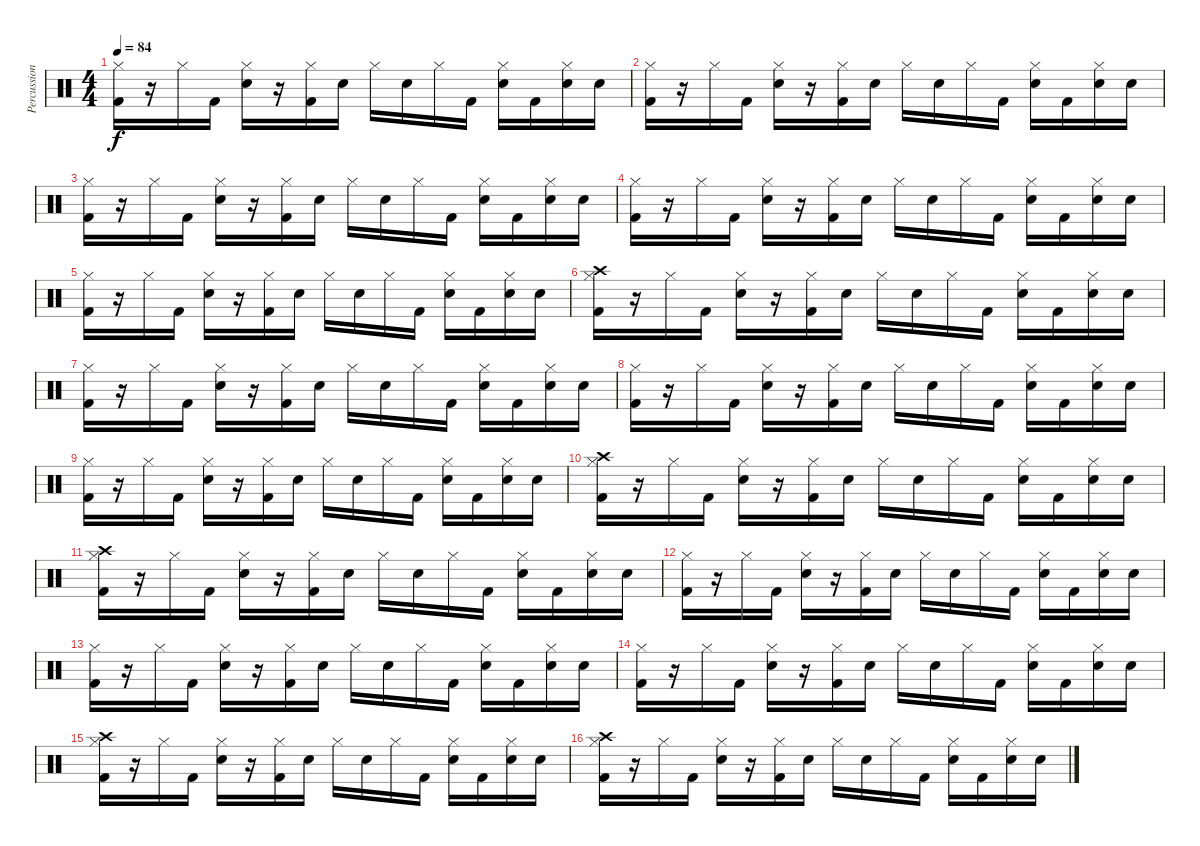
\track ("Percussion" "Percussion") {instrument percussion}
\staff {score}
\articulation defaults
\ts (4 4)
\tempo 84
\clef neutral
\ks c
("Hi-Hat (closed)" "Kick (hit) 2").16{dy f} r.16 "Hi-Hat (closed)".16 "Kick (hit) 2".16 ("Hi-Hat (closed)" "Snare (hit) 2").16 r.16 ("Hi-Hat (closed)" "Kick (hit) 2").16 "Snare (hit) 2".16 "Hi-Hat (closed)".16 "Snare (hit) 2".16 "Hi-Hat (closed)".16 "Kick (hit) 2".16 ("Hi-Hat (closed)" "Snare (hit) 2").16 "Kick (hit) 2".16 ("Hi-Hat (closed)" "Snare (hit) 2").16 "Snare (hit) 2".16 |
("Hi-Hat (closed)" "Kick (hit) 2").16 r.16 "Hi-Hat (closed)".16 "Kick (hit) 2".16 ("Hi-Hat (closed)" "Snare (hit) 2").16 r.16 ("Hi-Hat (closed)" "Kick (hit) 2").16 "Snare (hit) 2".16 "Hi-Hat (closed)".16 "Snare (hit) 2".16 "Hi-Hat (closed)".16 "Kick (hit) 2".16 ("Hi-Hat (closed)" "Snare (hit) 2").16 "Kick (hit) 2".16 ("Hi-Hat (closed)" "Snare (hit) 2").16 "Snare (hit) 2".16 |
("Hi-Hat (closed)" "Kick (hit) 2").16 r.16 "Hi-Hat (closed)".16 "Kick (hit) 2".16 ("Hi-Hat (closed)" "Snare (hit) 2").16 r.16 ("Hi-Hat (closed)" "Kick (hit) 2").16 "Snare (hit) 2".16 "Hi-Hat (closed)".16 "Snare (hit) 2".16 "Hi-Hat (closed)".16 "Kick (hit) 2".16 ("Hi-Hat (closed)" "Snare (hit) 2").16 "Kick (hit) 2".16 ("Hi-Hat (closed)" "Snare (hit) 2").16 "Snare (hit) 2".16 |
("Hi-Hat (closed)" "Kick (hit) 2").16 r.16 "Hi-Hat (closed)".16 "Kick (hit) 2".16 ("Hi-Hat (closed)" "Snare (hit) 2").16 r.16 ("Hi-Hat (closed)" "Kick (hit) 2").16 "Snare (hit) 2".16 "Hi-Hat (closed)".16 "Snare (hit) 2".16 "Hi-Hat (closed)".16 "Kick (hit) 2".16 ("Hi-Hat (closed)" "Snare (hit) 2").16 "Kick (hit) 2".16 ("Hi-Hat (closed)" "Snare (hit) 2").16 "Snare (hit) 2".16 |
("Hi-Hat (closed)" "Kick (hit) 2").16 r.16 "Hi-Hat (closed)".16 "Kick (hit) 2".16 ("Hi-Hat (closed)" "Snare (hit) 2").16 r.16 ("Hi-Hat (closed)" "Kick (hit) 2").16 "Snare (hit) 2".16 "Hi-Hat (closed)".16 "Snare (hit) 2".16 "Hi-Hat (closed)".16 "Kick (hit) 2".16 ("Hi-Hat (closed)" "Snare (hit) 2").16 "Kick (hit) 2".16 ("Hi-Hat (closed)" "Snare (hit) 2").16 "Snare (hit) 2".16 |
("Crash high (hit)" "Hi-Hat (closed)" "Kick (hit) 2").16 r.16 "Hi-Hat (closed)".16 "Kick (hit) 2".16 ("Hi-Hat (closed)" "Snare (hit) 2").16 r.16 ("Hi-Hat (closed)" "Kick (hit) 2").16 "Snare (hit) 2".16 "Hi-Hat (closed)".16 "Snare (hit) 2".16 "Hi-Hat (closed)".16 "Kick (hit) 2".16 ("Hi-Hat (closed)" "Snare (hit) 2").16 "Kick (hit) 2".16 ("Hi-Hat (closed)" "Snare (hit) 2").16 "Snare (hit) 2".16 |
("Hi-Hat (closed)" "Kick (hit) 2").16 r.16 "Hi-Hat (closed)".16 "Kick (hit) 2".16 ("Hi-Hat (closed)" "Snare (hit) 2").16 r.16 ("Hi-Hat (closed)" "Kick (hit) 2").16 "Snare (hit) 2".16 "Hi-Hat (closed)".16 "Snare (hit) 2".16 "Hi-Hat (closed)".16 "Kick (hit) 2".16 ("Hi-Hat (closed)" "Snare (hit) 2").16 "Kick (hit) 2".16 ("Hi-Hat (closed)" "Snare (hit) 2").16 "Snare (hit) 2".16 |
("Hi-Hat (closed)" "Kick (hit) 2").16 r.16 "Hi-Hat (closed)".16 "Kick (hit) 2".16 ("Hi-Hat (closed)" "Snare (hit) 2").16 r.16 ("Hi-Hat (closed)" "Kick (hit) 2").16 "Snare (hit) 2".16 "Hi-Hat (closed)".16 "Snare (hit) 2".16 "Hi-Hat (closed)".16 "Kick (hit) 2".16 ("Hi-Hat (closed)" "Snare (hit) 2").16 "Kick (hit) 2".16 ("Hi-Hat (closed)" "Snare (hit) 2").16 "Snare (hit) 2".16 |
("Hi-Hat (closed)" "Kick (hit) 2").16 r.16 "Hi-Hat (closed)".16 "Kick (hit) 2".16 ("Hi-Hat (closed)" "Snare (hit) 2").16 r.16 ("Hi-Hat (closed)" "Kick (hit) 2").16 "Snare (hit) 2".16 "Hi-Hat (closed)".16 "Snare (hit) 2".16 "Hi-Hat (closed)".16 "Kick (hit) 2".16 ("Hi-Hat (closed)" "Snare (hit) 2").16 "Kick (hit) 2".16 ("Hi-Hat (closed)" "Snare (hit) 2").16 "Snare (hit) 2".16 |
("Crash high (hit)" "Hi-Hat (closed)" "Kick (hit) 2").16 r.16 "Hi-Hat (closed)".16 "Kick (hit) 2".16 ("Hi-Hat (closed)" "Snare (hit) 2").16 r.16 ("Hi-Hat (closed)" "Kick (hit) 2").16 "Snare (hit) 2".16 "Hi-Hat (closed)".16 "Snare (hit) 2".16 "Hi-Hat (closed)".16 "Kick (hit) 2".16 ("Hi-Hat (closed)" "Snare (hit) 2").16 "Kick (hit) 2".16 ("Hi-Hat (closed)" "Snare (hit) 2").16 "Snare (hit) 2".16 |
("Crash high (hit)" "Hi-Hat (closed)" "Kick (hit) 2").16 r.16 "Hi-Hat (closed)".16 "Kick (hit) 2".16 ("Hi-Hat (closed)" "Snare (hit) 2").16 r.16 ("Hi-Hat (closed)" "Kick (hit) 2").16 "Snare (hit) 2".16 "Hi-Hat (closed)".16 "Snare (hit) 2".16 "Hi-Hat (closed)".16 "Kick (hit) 2".16 ("Hi-Hat (closed)" "Snare (hit) 2").16 "Kick (hit) 2".16 ("Hi-Hat (closed)" "Snare (hit) 2").16 "Snare (hit) 2".16 |
("Hi-Hat (closed)" "Kick (hit) 2").16 r.16 "Hi-Hat (closed)".16 "Kick (hit) 2".16 ("Hi-Hat (closed)" "Snare (hit) 2").16 r.16 ("Hi-Hat (closed)" "Kick (hit) 2").16 "Snare (hit) 2".16 "Hi-Hat (closed)".16 "Snare (hit) 2".16 "Hi-Hat (closed)".16 "Kick (hit) 2".16 ("Hi-Hat (closed)" "Snare (hit) 2").16 "Kick (hit) 2".16 ("Hi-Hat (closed)" "Snare (hit) 2").16 "Snare (hit) 2".16 |
("Hi-Hat (closed)" "Kick (hit) 2").16 r.16 "Hi-Hat (closed)".16 "Kick (hit) 2".16 ("Hi-Hat (closed)" "Snare (hit) 2").16 r.16 ("Hi-Hat (closed)" "Kick (hit) 2").16 "Snare (hit) 2".16 "Hi-Hat (closed)".16 "Snare (hit) 2".16 "Hi-Hat (closed)".16 "Kick (hit) 2".16 ("Hi-Hat (closed)" "Snare (hit) 2").16 "Kick (hit) 2".16 ("Hi-Hat (closed)" "Snare (hit) 2").16 "Snare (hit) 2".16 |
("Hi-Hat (closed)" "Kick (hit) 2").16 r.16 "Hi-Hat (closed)".16 "Kick (hit) 2".16 ("Hi-Hat (closed)" "Snare (hit) 2").16 r.16 ("Hi-Hat (closed)" "Kick (hit) 2").16 "Snare (hit) 2".16 "Hi-Hat (closed)".16 "Snare (hit) 2".16 "Hi-Hat (closed)".16 "Kick (hit) 2".16 ("Hi-Hat (closed)" "Snare (hit) 2").16 "Kick (hit) 2".16 ("Hi-Hat (closed)" "Snare (hit) 2").16 "Snare (hit) 2".16 |
("Crash high (hit)" "Hi-Hat (closed)" "Kick (hit) 2").16 r.16 "Hi-Hat (closed)".16 "Kick (hit) 2".16 ("Hi-Hat (closed)" "Snare (hit) 2").16 r.16 ("Hi-Hat (closed)" "Kick (hit) 2").16 "Snare (hit) 2".16 "Hi-Hat (closed)".16 "Snare (hit) 2".16 "Hi-Hat (closed)".16 "Kick (hit) 2".16 ("Hi-Hat (closed)" "Snare (hit) 2").16 "Kick (hit) 2".16 ("Hi-Hat (closed)" "Snare (hit) 2").16 "Snare (hit) 2".16 |
("Crash high (hit)" "Hi-Hat (closed)" "Kick (hit) 2").16 r.16 "Hi-Hat (closed)".16 "Kick (hit) 2".16 ("Hi-Hat (closed)" "Snare (hit) 2").16 r.16 ("Hi-Hat (closed)" "Kick (hit) 2").16 "Snare (hit) 2".16 "Hi-Hat (closed)".16 "Snare (hit) 2".16 "Hi-Hat (closed)".16 "Kick (hit) 2".16 ("Hi-Hat (closed)" "Snare (hit) 2").16 "Kick (hit) 2".16 ("Hi-Hat (closed)" "Snare (hit) 2").16 "Snare (hit) 2".16
